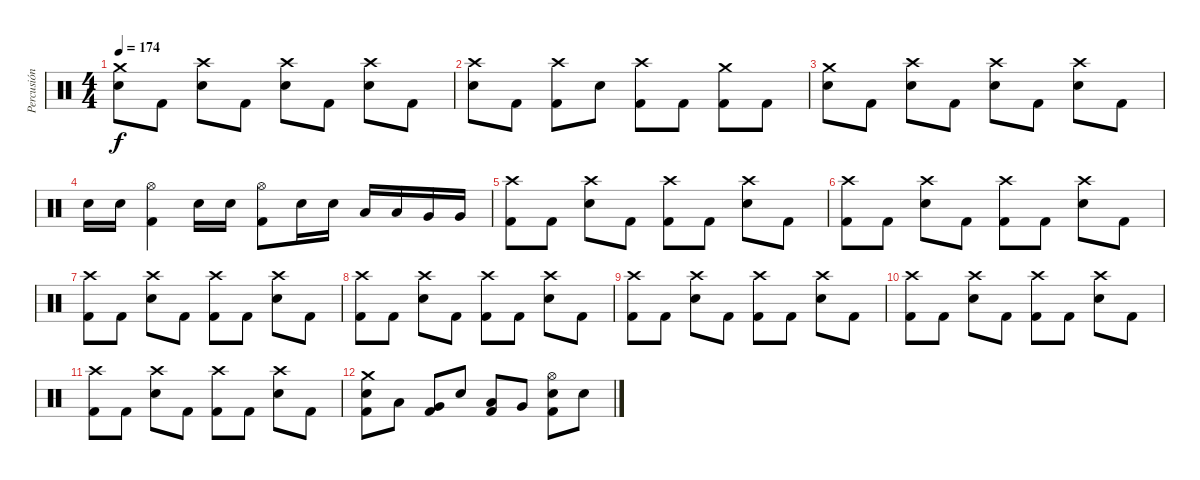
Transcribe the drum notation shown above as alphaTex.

\track ("Percusión" "Percusión") {instrument percussion}
\staff {score}
\articulation defaults
\ts (4 4)
\tempo 174
\clef neutral
\ks c
("Crash medium (hit)" "Electric Snare (hit)").8{dy f} "Kick (hit) 2".8 ("Crash high (hit)" "Electric Snare (hit)").8 "Kick (hit) 2".8 ("Crash high (hit)" "Electric Snare (hit)").8 "Kick (hit) 2".8 ("Crash high (hit)" "Electric Snare (hit)").8 "Kick (hit) 2".8 |
("Crash high (hit)" "Electric Snare (hit)").8 "Kick (hit) 2".8 ("Crash high (hit)" "Kick (hit) 2").8 "Electric Snare (hit)".8 ("Crash high (hit)" "Kick (hit) 2").8 "Kick (hit) 2".8 ("Crash medium (hit)" "Kick (hit) 2").8 "Kick (hit) 2".8 |
("Crash medium (hit)" "Electric Snare (hit)").8 "Kick (hit) 2".8 ("Crash high (hit)" "Electric Snare (hit)").8 "Kick (hit) 2".8 ("Crash high (hit)" "Electric Snare (hit)").8 "Kick (hit) 2".8 ("Crash high (hit)" "Electric Snare (hit)").8 "Kick (hit) 2".8 |
"Electric Snare (hit)".16 "Electric Snare (hit)".16 ("Hi-Hat (open)" "Kick (hit) 2").4 "Electric Snare (hit)".16 "Electric Snare (hit)".16 ("Hi-Hat (open)" "Kick (hit) 2").8 "Electric Snare (hit)".16 "Electric Snare (hit)".16 "Low Tom (hit)".16 "Low Tom (hit)".16 "Very Low Tom (hit)".16 "Very Low Tom (hit)".16 |
("Crash high (hit)" "Kick (hit) 2").8 "Kick (hit) 2".8 ("Crash high (hit)" "Electric Snare (hit)").8 "Kick (hit) 2".8 ("Crash high (hit)" "Kick (hit) 2").8 "Kick (hit) 2".8 ("Crash high (hit)" "Electric Snare (hit)").8 "Kick (hit) 2".8 |
("Crash high (hit)" "Kick (hit) 2").8 "Kick (hit) 2".8 ("Crash high (hit)" "Electric Snare (hit)").8 "Kick (hit) 2".8 ("Crash high (hit)" "Kick (hit) 2").8 "Kick (hit) 2".8 ("Crash high (hit)" "Electric Snare (hit)").8 "Kick (hit) 2".8 |
("Crash high (hit)" "Kick (hit) 2").8 "Kick (hit) 2".8 ("Crash high (hit)" "Electric Snare (hit)").8 "Kick (hit) 2".8 ("Crash high (hit)" "Kick (hit) 2").8 "Kick (hit) 2".8 ("Crash high (hit)" "Electric Snare (hit)").8 "Kick (hit) 2".8 |
("Crash high (hit)" "Kick (hit) 2").8 "Kick (hit) 2".8 ("Crash high (hit)" "Electric Snare (hit)").8 "Kick (hit) 2".8 ("Crash high (hit)" "Kick (hit) 2").8 "Kick (hit) 2".8 ("Crash high (hit)" "Electric Snare (hit)").8 "Kick (hit) 2".8 |
("Crash high (hit)" "Kick (hit) 2").8 "Kick (hit) 2".8 ("Crash high (hit)" "Electric Snare (hit)").8 "Kick (hit) 2".8 ("Crash high (hit)" "Kick (hit) 2").8 "Kick (hit) 2".8 ("Crash high (hit)" "Electric Snare (hit)").8 "Kick (hit) 2".8 |
("Crash high (hit)" "Kick (hit) 2").8 "Kick (hit) 2".8 ("Crash high (hit)" "Electric Snare (hit)").8 "Kick (hit) 2".8 ("Crash high (hit)" "Kick (hit) 2").8 "Kick (hit) 2".8 ("Crash high (hit)" "Electric Snare (hit)").8 "Kick (hit) 2".8 |
("Crash high (hit)" "Kick (hit) 2").8 "Kick (hit) 2".8 ("Crash high (hit)" "Electric Snare (hit)").8 "Kick (hit) 2".8 ("Crash high (hit)" "Kick (hit) 2").8 "Kick (hit) 2".8 ("Crash high (hit)" "Electric Snare (hit)").8 "Kick (hit) 2".8 |
("Crash medium (hit)" "Electric Snare (hit)" "Kick (hit) 2").8 "Low Tom (hit)".8 ("Very Low Tom (hit)" "Kick (hit) 2").8 "Electric Snare (hit)".8 ("Low Tom (hit)" "Kick (hit) 2").8 "Very Low Tom (hit)".8 ("Hi-Hat (open)" "Electric Snare (hit)" "Kick (hit) 2").8 "Electric Snare (hit)".8
